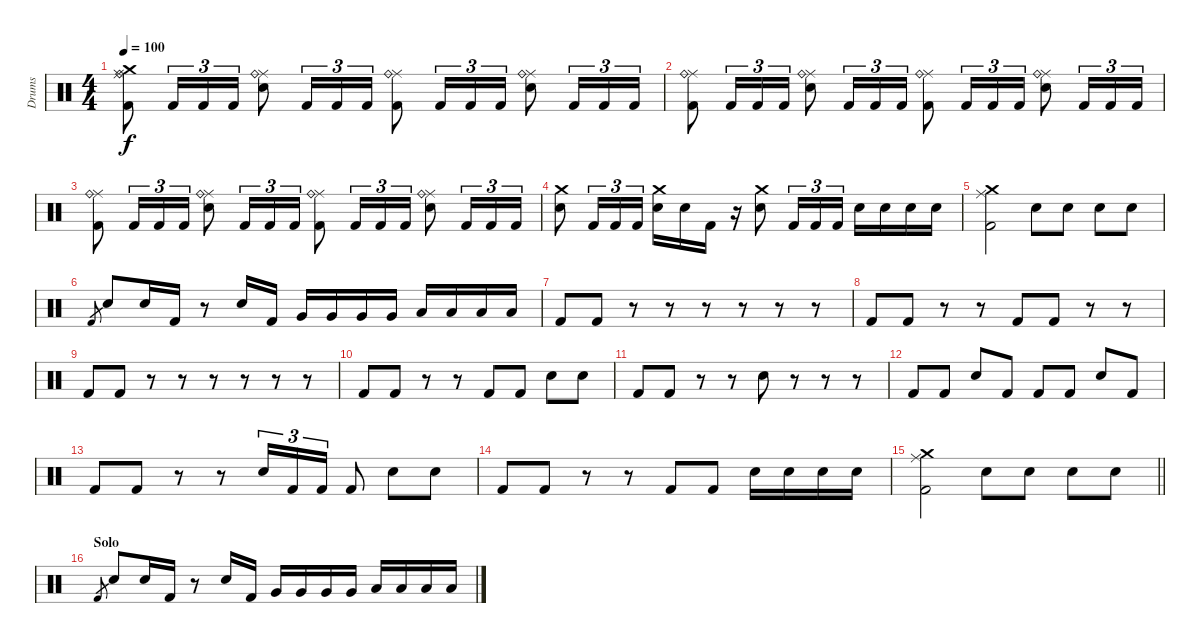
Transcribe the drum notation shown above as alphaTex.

\track ("Drums" "Drums") {instrument percussion}
\staff {score}
\articulation defaults
\ts (4 4)
\tempo 100
\clef neutral
\ks c
("Kick (hit) 2" "Crash medium (hit)" "Ride (middle)" "Ride (bell)").8{dy f} "Kick (hit) 2".16{tu (3 2)} "Kick (hit) 2".16{tu (3 2)} "Kick (hit) 2".16{tu (3 2)} ("Snare (hit) 2" "Ride (middle)" "Ride (bell)").8 "Kick (hit) 2".16{tu (3 2)} "Kick (hit) 2".16{tu (3 2)} "Kick (hit) 2".16{tu (3 2)} ("Kick (hit) 2" "Ride (middle)" "Ride (bell)").8 "Kick (hit) 2".16{tu (3 2)} "Kick (hit) 2".16{tu (3 2)} "Kick (hit) 2".16{tu (3 2)} ("Snare (hit) 2" "Ride (middle)" "Ride (bell)").8 "Kick (hit) 2".16{tu (3 2)} "Kick (hit) 2".16{tu (3 2)} "Kick (hit) 2".16{tu (3 2)} |
("Kick (hit) 2" "Ride (middle)" "Ride (bell)").8 "Kick (hit) 2".16{tu (3 2)} "Kick (hit) 2".16{tu (3 2)} "Kick (hit) 2".16{tu (3 2)} ("Snare (hit) 2" "Ride (middle)" "Ride (bell)").8 "Kick (hit) 2".16{tu (3 2)} "Kick (hit) 2".16{tu (3 2)} "Kick (hit) 2".16{tu (3 2)} ("Kick (hit) 2" "Ride (middle)" "Ride (bell)").8 "Kick (hit) 2".16{tu (3 2)} "Kick (hit) 2".16{tu (3 2)} "Kick (hit) 2".16{tu (3 2)} ("Snare (hit) 2" "Ride (middle)" "Ride (bell)").8 "Kick (hit) 2".16{tu (3 2)} "Kick (hit) 2".16{tu (3 2)} "Kick (hit) 2".16{tu (3 2)} |
("Kick (hit) 2" "Ride (middle)" "Ride (bell)").8 "Kick (hit) 2".16{tu (3 2)} "Kick (hit) 2".16{tu (3 2)} "Kick (hit) 2".16{tu (3 2)} ("Snare (hit) 2" "Ride (middle)" "Ride (bell)").8 "Kick (hit) 2".16{tu (3 2)} "Kick (hit) 2".16{tu (3 2)} "Kick (hit) 2".16{tu (3 2)} ("Kick (hit) 2" "Ride (middle)" "Ride (bell)").8 "Kick (hit) 2".16{tu (3 2)} "Kick (hit) 2".16{tu (3 2)} "Kick (hit) 2".16{tu (3 2)} ("Snare (hit) 2" "Ride (middle)" "Ride (bell)").8 "Kick (hit) 2".16{tu (3 2)} "Kick (hit) 2".16{tu (3 2)} "Kick (hit) 2".16{tu (3 2)} |
("Snare (hit) 2" "Crash medium (hit)").8 "Kick (hit) 2".16{tu (3 2)} "Kick (hit) 2".16{tu (3 2)} "Kick (hit) 2".16{tu (3 2)} ("Snare (hit) 2" "Crash medium (hit)").16 "Snare (hit) 2".16 "Kick (hit) 2".16 r.16 ("Snare (hit) 2" "Crash medium (hit)").8 "Kick (hit) 2".16{tu (3 2)} "Kick (hit) 2".16{tu (3 2)} "Kick (hit) 2".16{tu (3 2)} "Snare (hit) 2".16 "Snare (hit) 2".16 "Snare (hit) 2".16 "Snare (hit) 2".16 |
("Crash medium (hit)" "Ride (middle)" "Kick (hit) 2").2 "Snare (hit) 2".8 "Snare (hit) 2".8 "Snare (hit) 2".8 "Snare (hit) 2".8 |
"Kick (hit) 2".8{gr} "Snare (hit) 2".8 "Snare (hit) 2".16 "Kick (hit) 2".16 r.8 "Snare (hit) 2".16 "Kick (hit) 2".16 "Very Low Tom (hit)".16 "Very Low Tom (hit)".16 "Very Low Tom (hit)".16 "Very Low Tom (hit)".16 "Low Tom (hit)".16 "Low Tom (hit)".16 "Low Tom (hit)".16 "Low Tom (hit)".16 |
"Kick (hit) 2".8 "Kick (hit) 2".8 r.8 r.8 r.8 r.8 r.8 r.8 |
"Kick (hit) 2".8 "Kick (hit) 2".8 r.8 r.8 "Kick (hit) 2".8 "Kick (hit) 2".8 r.8 r.8 |
"Kick (hit) 2".8 "Kick (hit) 2".8 r.8 r.8 r.8 r.8 r.8 r.8 |
"Kick (hit) 2".8 "Kick (hit) 2".8 r.8 r.8 "Kick (hit) 2".8 "Kick (hit) 2".8 "Snare (hit) 2".8 "Snare (hit) 2".8 |
"Kick (hit) 2".8 "Kick (hit) 2".8 r.8 r.8 "Snare (hit) 2".8 r.8 r.8 r.8 |
"Kick (hit) 2".8 "Kick (hit) 2".8 "Snare (hit) 2".8 "Kick (hit) 2".8 "Kick (hit) 2".8 "Kick (hit) 2".8 "Snare (hit) 2".8 "Kick (hit) 2".8 |
"Kick (hit) 2".8 "Kick (hit) 2".8 r.8 r.8 "Snare (hit) 2".16{tu (3 2)} "Kick (hit) 2".16{tu (3 2)} "Kick (hit) 2".16{tu (3 2)} "Kick (hit) 2".8 "Snare (hit) 2".8 "Snare (hit) 2".8 |
"Kick (hit) 2".8 "Kick (hit) 2".8 r.8 r.8 "Kick (hit) 2".8 "Kick (hit) 2".8 "Snare (hit) 2".16 "Snare (hit) 2".16 "Snare (hit) 2".16 "Snare (hit) 2".16 |
\barLineRight lightlight
("Crash medium (hit)" "Ride (middle)" "Kick (hit) 2").2 "Snare (hit) 2".8 "Snare (hit) 2".8 "Snare (hit) 2".8 "Snare (hit) 2".8 |
\section ("" "Solo")
"Kick (hit) 2".8{gr} "Snare (hit) 2".8 "Snare (hit) 2".16 "Kick (hit) 2".16 r.8 "Snare (hit) 2".16 "Kick (hit) 2".16 "Very Low Tom (hit)".16 "Very Low Tom (hit)".16 "Very Low Tom (hit)".16 "Very Low Tom (hit)".16 "Low Tom (hit)".16 "Low Tom (hit)".16 "Low Tom (hit)".16 "Low Tom (hit)".16
